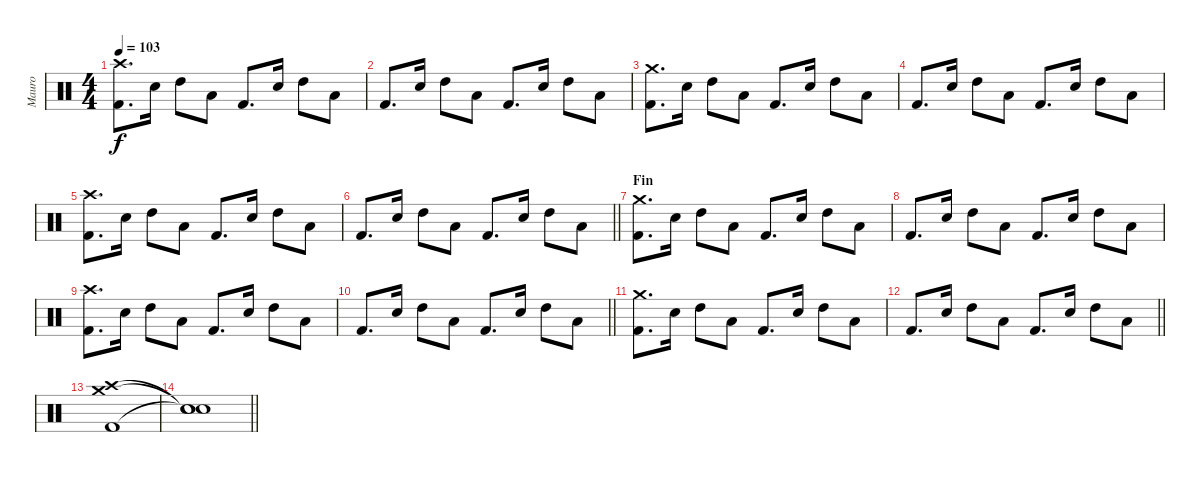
\track ("Mauro" "Mauro") {instrument percussion}
\staff {score}
\articulation defaults
\ts (4 4)
\tempo 103
\clef neutral
\ks c
("Kick (hit) 2" "Crash high (hit)").8{d dy f} "Electric Snare (hit)".16 "High Tom (hit)".8 "Low Floor Tom (hit)".8 "Kick (hit) 2".8{d} "Electric Snare (hit)".16 "High Tom (hit)".8 "Low Floor Tom (hit)".8 |
"Kick (hit) 2".8{d} "Electric Snare (hit)".16 "High Tom (hit)".8 "Low Floor Tom (hit)".8 "Kick (hit) 2".8{d} "Electric Snare (hit)".16 "High Tom (hit)".8 "Low Floor Tom (hit)".8 |
("Kick (hit) 2" "Crash medium (hit)").8{d} "Electric Snare (hit)".16 "High Tom (hit)".8 "Low Floor Tom (hit)".8 "Kick (hit) 2".8{d} "Electric Snare (hit)".16 "High Tom (hit)".8 "Low Floor Tom (hit)".8 |
"Kick (hit) 2".8{d} "Electric Snare (hit)".16 "High Tom (hit)".8 "Low Floor Tom (hit)".8 "Kick (hit) 2".8{d} "Electric Snare (hit)".16 "High Tom (hit)".8 "Low Floor Tom (hit)".8 |
("Kick (hit) 2" "Crash high (hit)").8{d} "Electric Snare (hit)".16 "High Tom (hit)".8 "Low Floor Tom (hit)".8 "Kick (hit) 2".8{d} "Electric Snare (hit)".16 "High Tom (hit)".8 "Low Floor Tom (hit)".8 |
\barLineRight lightlight "Kick (hit) 2".8{d} "Electric Snare (hit)".16 "High Tom (hit)".8 "Low Floor Tom (hit)".8 "Kick (hit) 2".8{d} "Electric Snare (hit)".16 "High Tom (hit)".8 "Low Floor Tom (hit)".8
|
\section ("" "Fin")
("Kick (hit) 2" "Crash medium (hit)").8{d} "Electric Snare (hit)".16 "High Tom (hit)".8 "Low Floor Tom (hit)".8 "Kick (hit) 2".8{d} "Electric Snare (hit)".16 "High Tom (hit)".8 "Low Floor Tom (hit)".8 |
"Kick (hit) 2".8{d} "Electric Snare (hit)".16 "High Tom (hit)".8 "Low Floor Tom (hit)".8 "Kick (hit) 2".8{d} "Electric Snare (hit)".16 "High Tom (hit)".8 "Low Floor Tom (hit)".8 |
("Kick (hit) 2" "Crash high (hit)").8{d} "Electric Snare (hit)".16 "High Tom (hit)".8 "Low Floor Tom (hit)".8 "Kick (hit) 2".8{d} "Electric Snare (hit)".16 "High Tom (hit)".8 "Low Floor Tom (hit)".8 |
\barLineRight lightlight "Kick (hit) 2".8{d} "Electric Snare (hit)".16 "High Tom (hit)".8 "Low Floor Tom (hit)".8 "Kick (hit) 2".8{d} "Electric Snare (hit)".16 "High Tom (hit)".8 "Low Floor Tom (hit)".8
|
("Kick (hit) 2" "Crash medium (hit)").8{d} "Electric Snare (hit)".16 "High Tom (hit)".8 "Low Floor Tom (hit)".8 "Kick (hit) 2".8{d} "Electric Snare (hit)".16 "High Tom (hit)".8 "Low Floor Tom (hit)".8 |
\barLineRight lightlight "Kick (hit) 2".8{d} "Electric Snare (hit)".16 "High Tom (hit)".8 "Low Floor Tom (hit)".8 "Kick (hit) 2".8{d} "Electric Snare (hit)".16 "High Tom (hit)".8 "Low Floor Tom (hit)".8
|
("Kick (hit) 2" "Crash high (hit)" "Crash medium (hit)").1 |
\barLineRight lightlight
("Snare (hit)"{t} "Snare (hit)"{t} "Snare (hit)"{t}).1
